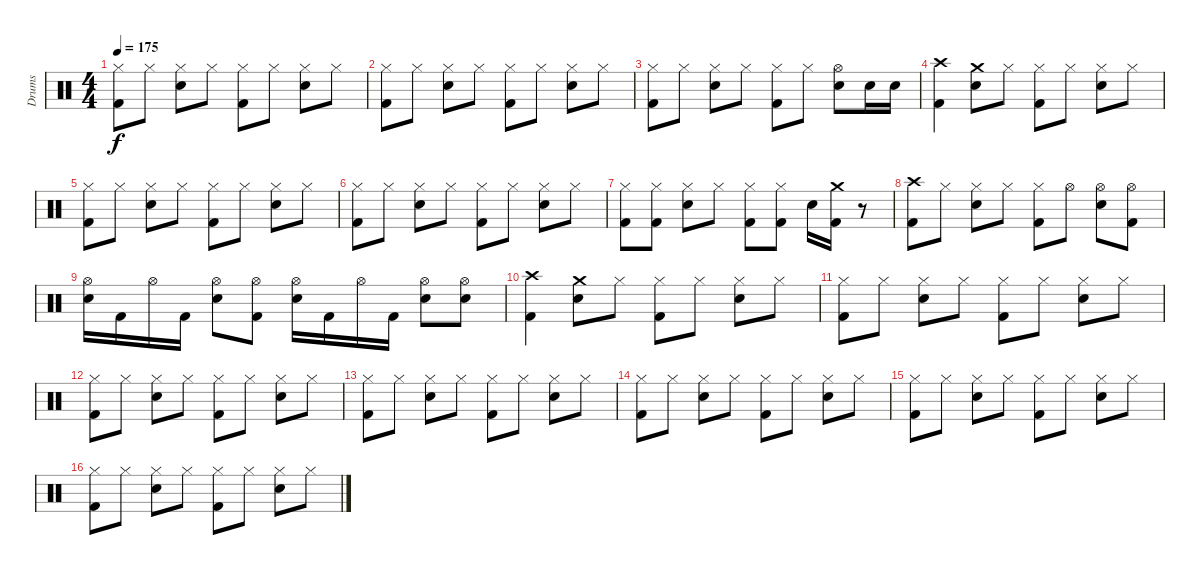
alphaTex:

\track ("Drums" "Drums") {instrument percussion}
\staff {score}
\articulation defaults
\ts (4 4)
\tempo 175
\clef neutral
\ks c
("Hi-Hat (closed)" "Kick (hit) 2").8{dy f} "Hi-Hat (closed)".8 ("Hi-Hat (closed)" "Snare (hit) 2").8 "Hi-Hat (closed)".8 ("Hi-Hat (closed)" "Kick (hit) 2").8 "Hi-Hat (closed)".8 ("Hi-Hat (closed)" "Snare (hit) 2").8 "Hi-Hat (closed)".8 |
("Hi-Hat (closed)" "Kick (hit) 2").8 "Hi-Hat (closed)".8 ("Hi-Hat (closed)" "Snare (hit) 2").8 "Hi-Hat (closed)".8 ("Hi-Hat (closed)" "Kick (hit) 2").8 "Hi-Hat (closed)".8 ("Hi-Hat (closed)" "Snare (hit) 2").8 "Hi-Hat (closed)".8 |
("Hi-Hat (closed)" "Kick (hit) 2").8 "Hi-Hat (closed)".8 ("Hi-Hat (closed)" "Snare (hit) 2").8 "Hi-Hat (closed)".8 ("Hi-Hat (closed)" "Kick (hit) 2").8 "Hi-Hat (closed)".8 ("Hi-Hat (open)" "Snare (hit) 2").8 "Snare (hit) 2".16 "Snare (hit) 2".16 |
("Crash high (hit)" "Kick (hit) 2").4 ("Crash medium (hit)" "Snare (hit) 2").8 "Hi-Hat (closed)".8 ("Hi-Hat (closed)" "Kick (hit) 2").8 "Hi-Hat (closed)".8 ("Hi-Hat (closed)" "Snare (hit) 2").8 "Hi-Hat (closed)".8 |
("Hi-Hat (closed)" "Kick (hit) 2").8 "Hi-Hat (closed)".8 ("Hi-Hat (closed)" "Snare (hit) 2").8 "Hi-Hat (closed)".8 ("Hi-Hat (closed)" "Kick (hit) 2").8 "Hi-Hat (closed)".8 ("Hi-Hat (closed)" "Snare (hit) 2").8 "Hi-Hat (closed)".8 |
("Hi-Hat (closed)" "Kick (hit) 2").8 "Hi-Hat (closed)".8 ("Hi-Hat (closed)" "Snare (hit) 2").8 "Hi-Hat (closed)".8 ("Hi-Hat (closed)" "Kick (hit) 2").8 "Hi-Hat (closed)".8 ("Hi-Hat (closed)" "Snare (hit) 2").8 "Hi-Hat (closed)".8 |
("Hi-Hat (closed)" "Kick (hit) 2").8 ("Hi-Hat (closed)" "Kick (hit) 2").8 ("Hi-Hat (closed)" "Snare (hit) 2").8 "Hi-Hat (closed)".8 ("Hi-Hat (closed)" "Kick (hit) 2").8 ("Hi-Hat (closed)" "Kick (hit) 2").8 "Snare (hit) 2".16 ("Crash medium (hit)" "Kick (hit) 2").16 r.8 |
("Crash high (hit)" "Kick (hit) 2").8 "Hi-Hat (closed)".8 ("Hi-Hat (closed)" "Snare (hit) 2").8 "Hi-Hat (closed)".8 ("Hi-Hat (closed)" "Kick (hit) 2").8 "Hi-Hat (open)".8 ("Hi-Hat (open)" "Snare (hit) 2").8 ("Hi-Hat (open)" "Kick (hit) 2").8 |
("Hi-Hat (open)" "Snare (hit) 2").16 "Kick (hit) 2".16 "Hi-Hat (open)".16 "Kick (hit) 2".16 ("Hi-Hat (open)" "Snare (hit) 2").8 ("Hi-Hat (open)" "Kick (hit) 2").8 ("Hi-Hat (open)" "Snare (hit) 2").16 "Kick (hit) 2".16 "Hi-Hat (open)".16 "Kick (hit) 2".16 ("Hi-Hat (open)" "Snare (hit) 2").8 ("Hi-Hat (open)" "Snare (hit) 2").8 |
("Crash high (hit)" "Kick (hit) 2").4 ("Crash medium (hit)" "Snare (hit) 2").8 "Hi-Hat (closed)".8 ("Hi-Hat (closed)" "Kick (hit) 2").8 "Hi-Hat (closed)".8 ("Hi-Hat (closed)" "Snare (hit) 2").8 "Hi-Hat (closed)".8 |
("Hi-Hat (closed)" "Kick (hit) 2").8 "Hi-Hat (closed)".8 ("Hi-Hat (closed)" "Snare (hit) 2").8 "Hi-Hat (closed)".8 ("Hi-Hat (closed)" "Kick (hit) 2").8 "Hi-Hat (closed)".8 ("Hi-Hat (closed)" "Snare (hit) 2").8 "Hi-Hat (closed)".8 |
("Hi-Hat (closed)" "Kick (hit) 2").8 "Hi-Hat (closed)".8 ("Hi-Hat (closed)" "Snare (hit) 2").8 "Hi-Hat (closed)".8 ("Hi-Hat (closed)" "Kick (hit) 2").8 "Hi-Hat (closed)".8 ("Hi-Hat (closed)" "Snare (hit) 2").8 "Hi-Hat (closed)".8 |
("Hi-Hat (closed)" "Kick (hit) 2").8 "Hi-Hat (closed)".8 ("Hi-Hat (closed)" "Snare (hit) 2").8 "Hi-Hat (closed)".8 ("Hi-Hat (closed)" "Kick (hit) 2").8 "Hi-Hat (closed)".8 ("Hi-Hat (closed)" "Snare (hit) 2").8 "Hi-Hat (closed)".8 |
("Hi-Hat (closed)" "Kick (hit) 2").8 "Hi-Hat (closed)".8 ("Hi-Hat (closed)" "Snare (hit) 2").8 "Hi-Hat (closed)".8 ("Hi-Hat (closed)" "Kick (hit) 2").8 "Hi-Hat (closed)".8 ("Hi-Hat (closed)" "Snare (hit) 2").8 "Hi-Hat (closed)".8 |
("Hi-Hat (closed)" "Kick (hit) 2").8 "Hi-Hat (closed)".8 ("Hi-Hat (closed)" "Snare (hit) 2").8 "Hi-Hat (closed)".8 ("Hi-Hat (closed)" "Kick (hit) 2").8 "Hi-Hat (closed)".8 ("Hi-Hat (closed)" "Snare (hit) 2").8 "Hi-Hat (closed)".8 |
("Hi-Hat (closed)" "Kick (hit) 2").8 "Hi-Hat (closed)".8 ("Hi-Hat (closed)" "Snare (hit) 2").8 "Hi-Hat (closed)".8 ("Hi-Hat (closed)" "Kick (hit) 2").8 "Hi-Hat (closed)".8 ("Hi-Hat (closed)" "Snare (hit) 2").8 "Hi-Hat (closed)".8
